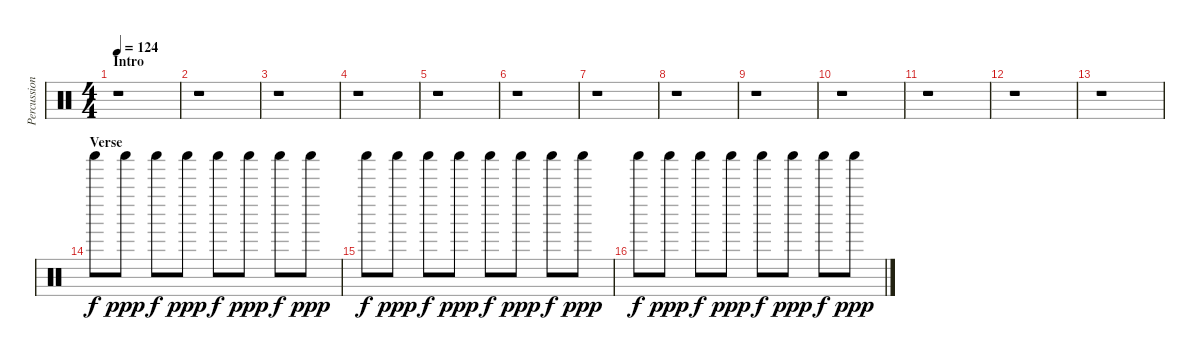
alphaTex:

\track ("Percussion" "Percussion") {instrument percussion}
\staff {score}
\articulation defaults
\ts (4 4)
\section ("" "Intro")
\tempo 124
\clef neutral
\ks c
r.1{dy f} |
r.1 |
r.1 |
r.1 |
r.1 |
r.1 |
r.1 |
r.1 |
r.1 |
r.1 |
r.1 |
r.1 |
r.1 |
\section ("" "Verse")
"Shaker (hit)".8 "Shaker (hit)".8{dy ppp} "Shaker (hit)".8{dy f} "Shaker (hit)".8{dy ppp} "Shaker (hit)".8{dy f} "Shaker (hit)".8{dy ppp} "Shaker (hit)".8{dy f} "Shaker (hit)".8{dy ppp} |
"Shaker (hit)".8{dy f} "Shaker (hit)".8{dy ppp} "Shaker (hit)".8{dy f} "Shaker (hit)".8{dy ppp} "Shaker (hit)".8{dy f} "Shaker (hit)".8{dy ppp} "Shaker (hit)".8{dy f} "Shaker (hit)".8{dy ppp} |
"Shaker (hit)".8{dy f} "Shaker (hit)".8{dy ppp} "Shaker (hit)".8{dy f} "Shaker (hit)".8{dy ppp} "Shaker (hit)".8{dy f} "Shaker (hit)".8{dy ppp} "Shaker (hit)".8{dy f} "Shaker (hit)".8{dy ppp}
